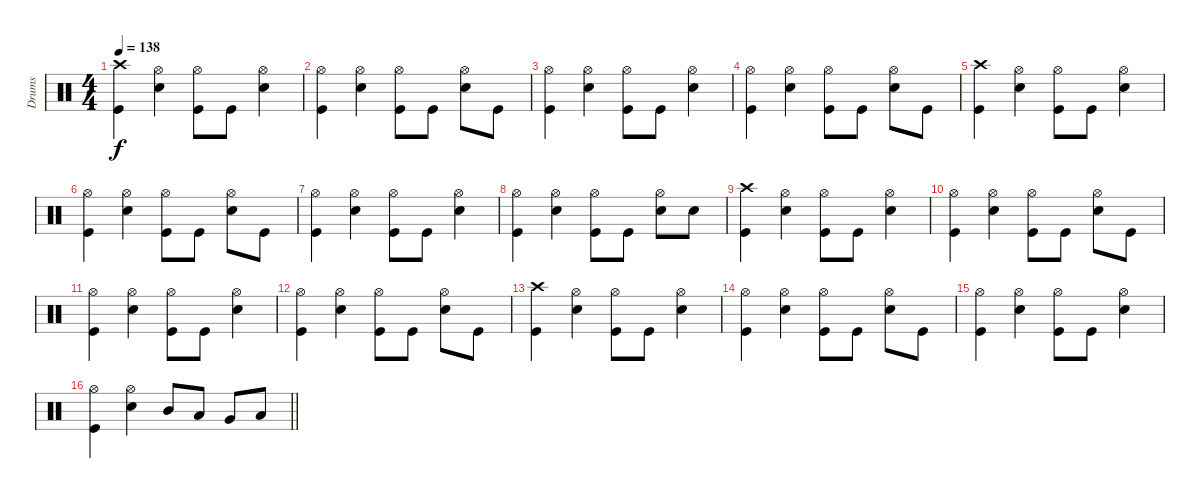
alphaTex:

\track ("Drums" "Drums") {instrument percussion}
\staff {score}
\articulation defaults
\ts (4 4)
\section ("" "")
\tempo 138
\clef neutral
\ks c
("Crash high (hit)" "Kick (hit)").4{dy f} ("Hi-Hat (open)" "Electric Snare (hit)").4 ("Hi-Hat (open)" "Kick (hit)").8 "Kick (hit)".8 ("Hi-Hat (open)" "Electric Snare (hit)").4 |
("Hi-Hat (open)" "Kick (hit)").4 ("Hi-Hat (open)" "Electric Snare (hit)").4 ("Hi-Hat (open)" "Kick (hit)").8 "Kick (hit)".8 ("Hi-Hat (open)" "Electric Snare (hit)").8 "Kick (hit)".8 |
("Hi-Hat (open)" "Kick (hit)").4 ("Hi-Hat (open)" "Electric Snare (hit)").4 ("Hi-Hat (open)" "Kick (hit)").8 "Kick (hit)".8 ("Hi-Hat (open)" "Electric Snare (hit)").4 |
("Hi-Hat (open)" "Kick (hit)").4 ("Hi-Hat (open)" "Electric Snare (hit)").4 ("Hi-Hat (open)" "Kick (hit)").8 "Kick (hit)".8 ("Hi-Hat (open)" "Electric Snare (hit)").8 "Kick (hit)".8 |
("Crash high (hit)" "Kick (hit)").4 ("Hi-Hat (open)" "Electric Snare (hit)").4 ("Hi-Hat (open)" "Kick (hit)").8 "Kick (hit)".8 ("Hi-Hat (open)" "Electric Snare (hit)").4 |
("Hi-Hat (open)" "Kick (hit)").4 ("Hi-Hat (open)" "Electric Snare (hit)").4 ("Hi-Hat (open)" "Kick (hit)").8 "Kick (hit)".8 ("Hi-Hat (open)" "Electric Snare (hit)").8 "Kick (hit)".8 |
("Hi-Hat (open)" "Kick (hit)").4 ("Hi-Hat (open)" "Electric Snare (hit)").4 ("Hi-Hat (open)" "Kick (hit)").8 "Kick (hit)".8 ("Hi-Hat (open)" "Electric Snare (hit)").4 |
("Hi-Hat (open)" "Kick (hit)").4 ("Hi-Hat (open)" "Electric Snare (hit)").4 ("Hi-Hat (open)" "Kick (hit)").8 "Kick (hit)".8 ("Hi-Hat (open)" "Electric Snare (hit)").8 "Electric Snare (hit)".8 |
("Crash high (hit)" "Kick (hit)").4 ("Hi-Hat (open)" "Electric Snare (hit)").4 ("Hi-Hat (open)" "Kick (hit)").8 "Kick (hit)".8 ("Hi-Hat (open)" "Electric Snare (hit)").4 |
("Hi-Hat (open)" "Kick (hit)").4 ("Hi-Hat (open)" "Electric Snare (hit)").4 ("Hi-Hat (open)" "Kick (hit)").8 "Kick (hit)".8 ("Hi-Hat (open)" "Electric Snare (hit)").8 "Kick (hit)".8 |
("Hi-Hat (open)" "Kick (hit)").4 ("Hi-Hat (open)" "Electric Snare (hit)").4 ("Hi-Hat (open)" "Kick (hit)").8 "Kick (hit)".8 ("Hi-Hat (open)" "Electric Snare (hit)").4 |
("Hi-Hat (open)" "Kick (hit)").4 ("Hi-Hat (open)" "Electric Snare (hit)").4 ("Hi-Hat (open)" "Kick (hit)").8 "Kick (hit)".8 ("Hi-Hat (open)" "Electric Snare (hit)").8 "Kick (hit)".8 |
("Crash high (hit)" "Kick (hit)").4 ("Hi-Hat (open)" "Electric Snare (hit)").4 ("Hi-Hat (open)" "Kick (hit)").8 "Kick (hit)".8 ("Hi-Hat (open)" "Electric Snare (hit)").4 |
("Hi-Hat (open)" "Kick (hit)").4 ("Hi-Hat (open)" "Electric Snare (hit)").4 ("Hi-Hat (open)" "Kick (hit)").8 "Kick (hit)".8 ("Hi-Hat (open)" "Electric Snare (hit)").8 "Kick (hit)".8 |
("Hi-Hat (open)" "Kick (hit)").4 ("Hi-Hat (open)" "Electric Snare (hit)").4 ("Hi-Hat (open)" "Kick (hit)").8 "Kick (hit)".8 ("Hi-Hat (open)" "Electric Snare (hit)").4 |
\barLineRight lightlight
("Hi-Hat (open)" "Kick (hit)").4 ("Hi-Hat (open)" "Electric Snare (hit)").4 "Mid Tom (hit)".8 "Low Tom (hit)".8 "Very Low Tom (hit)".8 "Low Floor Tom (hit)".8
